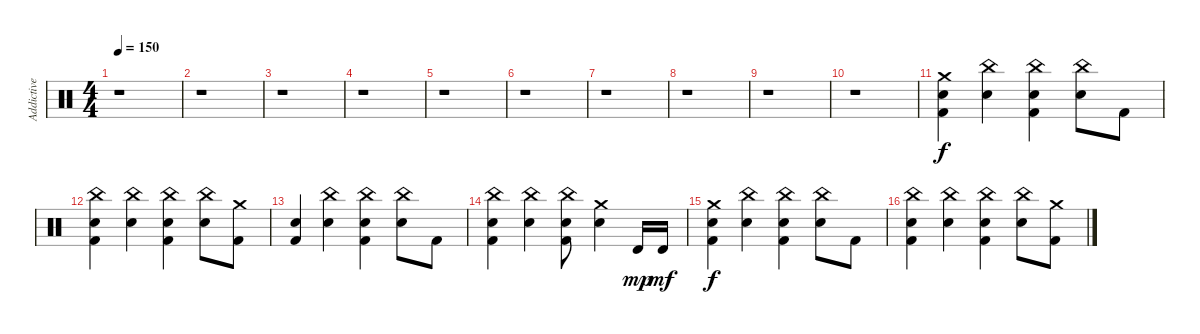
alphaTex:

\track ("Addictive Drums (MIDI)" "Addictive ") {instrument percussion}
\staff {score}
\articulation defaults
\ts (4 4)
\tempo 150
\clef neutral
\ks c
r.1{dy f} |
r.1 |
r.1 |
r.1 |
r.1 |
r.1 |
r.1 |
r.1 |
r.1 |
r.1 |
("Crash medium (hit)" "Kick (hit) 2" "Snare (hit) 2").4 ("Snare (hit) 2" "China (hit)").4 ("Snare (hit) 2" "China (hit)" "Kick (hit) 2").4 ("Snare (hit) 2" "China (hit)").8 "Kick (hit) 2".8 |
("Snare (hit) 2" "China (hit)" "Kick (hit) 2").4 ("China (hit)" "Snare (hit) 2").4 ("Kick (hit) 2" "China (hit)" "Snare (hit) 2").4 ("China (hit)" "Snare (hit) 2").8 ("Crash medium (hit)" "Kick (hit) 2").8 |
("Snare (hit) 2" "Kick (hit) 2").4 ("China (hit)" "Snare (hit) 2").4 ("Kick (hit) 2" "China (hit)" "Snare (hit) 2").4 ("China (hit)" "Snare (hit) 2").8 "Kick (hit) 2".8 |
("Snare (hit) 2" "China (hit)" "Kick (hit) 2").4 ("China (hit)" "Snare (hit) 2").4 ("Snare (hit) 2" "China (hit)" "Kick (hit) 2").8 ("Crash medium (hit)" "Snare (hit) 2").4 "Timbale high (hit)".16{dy mp} "Timbale high (hit)".16{dy mf} |
("Snare (hit) 2" "Kick (hit) 2" "Crash medium (hit)").4{dy f} ("Snare (hit) 2" "China (hit)").4 ("Snare (hit) 2" "China (hit)" "Kick (hit) 2").4 ("Snare (hit) 2" "China (hit)").8 "Kick (hit) 2".8 |
("Snare (hit) 2" "China (hit)" "Kick (hit) 2").4 ("China (hit)" "Snare (hit) 2").4 ("Snare (hit) 2" "China (hit)" "Kick (hit) 2").4 ("Snare (hit) 2" "China (hit)").8 ("Kick (hit) 2" "Crash medium (hit)").8
